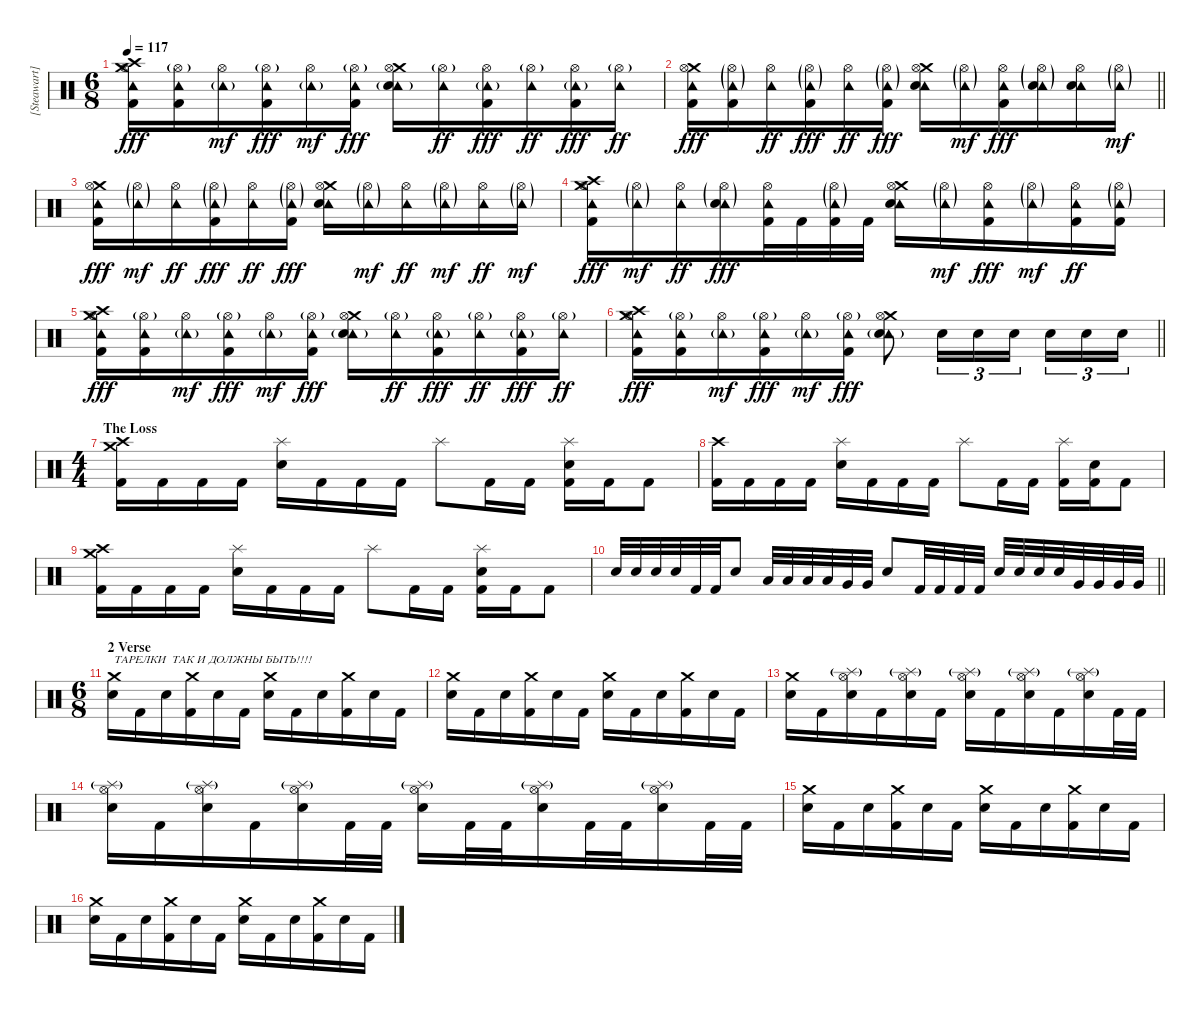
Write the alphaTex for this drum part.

\track ("[Steawart] Drums" "[Steawart]") {instrument percussion}
\staff {score}
\articulation defaults
\ts (6 8)
\tempo 117
\clef neutral
\ks c
("Crash medium (hit)" "Hi-Hat (open)" "Crash high (hit)" "Tambourine (hit)" "Kick (hit) 2").16{dy fff} ("Hi-Hat (open)"{g} "Tambourine (hit)" "Kick (hit) 2").16 ("Hi-Hat (open)" "Tambourine (hit)"{g}).16{dy mf} ("Hi-Hat (open)"{g} "Tambourine (hit)" "Kick (hit) 2").16{dy fff} ("Hi-Hat (open)" "Tambourine (hit)"{g}).16{dy mf} ("Hi-Hat (open)"{g} "Tambourine (hit)" "Kick (hit) 2").16{dy fff} ("Crash medium (hit)" "Hi-Hat (open)" "Tambourine (hit)"{g} "Electric Snare (hit)").16 ("Hi-Hat (open)"{g} "Tambourine (hit)").16{dy ff} ("Hi-Hat (open)" "Tambourine (hit)"{g} "Kick (hit) 2").16{dy fff} ("Hi-Hat (open)"{g} "Tambourine (hit)").16{dy ff} ("Hi-Hat (open)" "Tambourine (hit)"{g} "Kick (hit) 2").16{dy fff} ("Hi-Hat (open)"{g} "Tambourine (hit)").16{dy ff} |
\barLineRight lightlight
("Crash medium (hit)" "Hi-Hat (open)" "Tambourine (hit)" "Kick (hit) 2").16{dy fff} ("Hi-Hat (open)"{g} "Tambourine (hit)"{g} "Kick (hit) 2").16 ("Hi-Hat (open)" "Tambourine (hit)").16{dy ff} ("Hi-Hat (open)"{g} "Tambourine (hit)"{g} "Kick (hit) 2").16{dy fff} ("Hi-Hat (open)" "Tambourine (hit)").16{dy ff} ("Hi-Hat (open)"{g} "Tambourine (hit)"{g} "Kick (hit) 2").16{dy fff} ("Crash medium (hit)" "Hi-Hat (open)" "Tambourine (hit)" "Electric Snare (hit)").16 ("Hi-Hat (open)"{g} "Tambourine (hit)"{g}).16{dy mf} ("Hi-Hat (open)" "Tambourine (hit)" "Kick (hit) 2").16{dy fff} ("Hi-Hat (open)"{g} "Tambourine (hit)"{g} "Electric Snare (hit)").16 ("Hi-Hat (open)" "Tambourine (hit)" "Electric Snare (hit)").16 ("Hi-Hat (open)"{g} "Tambourine (hit)"{g}).16{dy mf} |
("Crash medium (hit)" "Hi-Hat (open)" "Tambourine (hit)" "Kick (hit) 2").16{dy fff} ("Hi-Hat (open)"{g} "Tambourine (hit)"{g}).16{dy mf} ("Hi-Hat (open)" "Tambourine (hit)").16{dy ff} ("Hi-Hat (open)"{g} "Tambourine (hit)"{g} "Kick (hit) 2").16{dy fff} ("Hi-Hat (open)" "Tambourine (hit)").16{dy ff} ("Hi-Hat (open)"{g} "Tambourine (hit)"{g} "Kick (hit) 2").16{dy fff} ("Crash medium (hit)" "Hi-Hat (open)" "Tambourine (hit)" "Electric Snare (hit)").16 ("Hi-Hat (open)"{g} "Tambourine (hit)"{g}).16{dy mf} ("Hi-Hat (open)" "Tambourine (hit)").16{dy ff} ("Hi-Hat (open)"{g} "Tambourine (hit)"{g}).16{dy mf} ("Hi-Hat (open)" "Tambourine (hit)").16{dy ff} ("Hi-Hat (open)"{g} "Tambourine (hit)"{g}).16{dy mf} |
("Crash medium (hit)" "Hi-Hat (open)" "Crash high (hit)" "Tambourine (hit)" "Kick (hit) 2").16{dy fff} ("Hi-Hat (open)"{g} "Tambourine (hit)"{g}).16{dy mf} ("Hi-Hat (open)" "Tambourine (hit)").16{dy ff} ("Hi-Hat (open)"{g} "Tambourine (hit)"{g} "Electric Snare (hit)").16{dy fff} ("Hi-Hat (open)" "Tambourine (hit)" "Kick (hit) 2").32 "Kick (hit) 2".32 ("Hi-Hat (open)"{g} "Tambourine (hit)"{g} "Kick (hit) 2").32 "Kick (hit) 2".32 ("Crash medium (hit)" "Hi-Hat (open)" "Tambourine (hit)" "Electric Snare (hit)").16 ("Hi-Hat (open)"{g} "Tambourine (hit)"{g}).16{dy mf} ("Hi-Hat (open)" "Tambourine (hit)" "Kick (hit) 2").16{dy fff} ("Hi-Hat (open)"{g} "Tambourine (hit)"{g}).16{dy mf} ("Hi-Hat (open)" "Tambourine (hit)" "Kick (hit) 2").16{dy ff} ("Hi-Hat (open)"{g} "Tambourine (hit)"{g} "Kick (hit) 2").16 |
("Crash medium (hit)" "Hi-Hat (open)" "Crash high (hit)" "Tambourine (hit)" "Kick (hit) 2").16{dy fff} ("Hi-Hat (open)"{g} "Tambourine (hit)" "Kick (hit) 2").16 ("Hi-Hat (open)" "Tambourine (hit)"{g}).16{dy mf} ("Hi-Hat (open)"{g} "Tambourine (hit)" "Kick (hit) 2").16{dy fff} ("Hi-Hat (open)" "Tambourine (hit)"{g}).16{dy mf} ("Hi-Hat (open)"{g} "Tambourine (hit)" "Kick (hit) 2").16{dy fff} ("Crash medium (hit)" "Hi-Hat (open)" "Tambourine (hit)"{g} "Electric Snare (hit)").16 ("Hi-Hat (open)"{g} "Tambourine (hit)").16{dy ff} ("Hi-Hat (open)" "Tambourine (hit)"{g} "Kick (hit) 2").16{dy fff} ("Hi-Hat (open)"{g} "Tambourine (hit)").16{dy ff} ("Hi-Hat (open)" "Tambourine (hit)"{g} "Kick (hit) 2").16{dy fff} ("Hi-Hat (open)"{g} "Tambourine (hit)").16{dy ff} |
\barLineRight lightlight
("Crash medium (hit)" "Hi-Hat (open)" "Crash high (hit)" "Tambourine (hit)" "Kick (hit) 2").16{dy fff} ("Hi-Hat (open)"{g} "Tambourine (hit)" "Kick (hit) 2").16 ("Hi-Hat (open)" "Tambourine (hit)"{g}).16{dy mf} ("Hi-Hat (open)"{g} "Tambourine (hit)" "Kick (hit) 2").16{dy fff} ("Hi-Hat (open)" "Tambourine (hit)"{g}).16{dy mf} ("Hi-Hat (open)"{g} "Tambourine (hit)" "Kick (hit) 2").16{dy fff} ("Crash medium (hit)" "Hi-Hat (open)" "Tambourine (hit)"{g} "Electric Snare (hit)").8 "Electric Snare (hit)".16{tu (3 2)} "Electric Snare (hit)".16{tu (3 2)} "Electric Snare (hit)".16{tu (3 2) beam splitsecondary} "Electric Snare (hit)".16{tu (3 2)} "Electric Snare (hit)".16{tu (3 2)} "Electric Snare (hit)".16{tu (3 2)} |
\ts (4 4)
\section ("" "The Loss")
("Crash medium (hit)" "Crash high (hit)" "Kick (hit) 2").16 "Kick (hit) 2".16 "Kick (hit) 2".16 "Kick (hit) 2".16 ("Splash (hit)" "Electric Snare (hit)").16 "Kick (hit) 2".16 "Kick (hit) 2".16 "Kick (hit) 2".16 "Splash (hit)".8 "Kick (hit) 2".16 "Kick (hit) 2".16 ("Splash (hit)" "Electric Snare (hit)" "Kick (hit) 2").16 "Kick (hit) 2".16 "Kick (hit) 2".8 |
("Crash high (hit)" "Kick (hit) 2").16 "Kick (hit) 2".16 "Kick (hit) 2".16 "Kick (hit) 2".16 ("Splash (hit)" "Electric Snare (hit)").16 "Kick (hit) 2".16 "Kick (hit) 2".16 "Kick (hit) 2".16 "Splash (hit)".8 "Kick (hit) 2".16 "Kick (hit) 2".16 ("Splash (hit)" "Kick (hit) 2").16 ("Electric Snare (hit)" "Kick (hit) 2").16 "Kick (hit) 2".8 |
("Crash medium (hit)" "Crash high (hit)" "Kick (hit) 2").16 "Kick (hit) 2".16 "Kick (hit) 2".16 "Kick (hit) 2".16 ("Splash (hit)" "Electric Snare (hit)").16 "Kick (hit) 2".16 "Kick (hit) 2".16 "Kick (hit) 2".16 "Splash (hit)".8 "Kick (hit) 2".16 "Kick (hit) 2".16 ("Splash (hit)" "Electric Snare (hit)" "Kick (hit) 2").16 "Kick (hit) 2".16 "Kick (hit) 2".8 |
\barLineRight lightlight "Electric Snare (hit)".32 "Electric Snare (hit)".32 "Electric Snare (hit)".32 "Electric Snare (hit)".32 "Kick (hit) 2".32 "Kick (hit) 2".32 "Electric Snare (hit)".8 "Low Tom (hit)".32 "Low Tom (hit)".32 "Low Tom (hit)".32 "Low Tom (hit)".32 "Very Low Tom (hit)".32 "Very Low Tom (hit)".32 "Electric Snare (hit)".8 "Kick (hit) 2".32 "Kick (hit) 2".32 "Kick (hit) 2".32 "Kick (hit) 2".32 "Electric Snare (hit)".32 "Electric Snare (hit)".32 "Electric Snare (hit)".32 "Electric Snare (hit)".32 "Very Low Tom (hit)".32 "Very Low Tom (hit)".32 "Very Low Tom (hit)".32 "Very Low Tom (hit)".32
|
\ts (6 8)
\section ("" "2 Verse ")
("Crash medium (hit)" "Electric Snare (hit)").16{txt "ТАРЕЛКИ  ТАК И ДОЛЖНЫ БЫТЬ!!!!"} "Kick (hit) 2".16 "Electric Snare (hit)".16 ("Crash medium (hit)" "Kick (hit) 2").16 "Electric Snare (hit)".16 "Kick (hit) 2".16 ("Crash medium (hit)" "Electric Snare (hit)").16 "Kick (hit) 2".16 "Electric Snare (hit)".16 ("Crash medium (hit)" "Kick (hit) 2").16 "Electric Snare (hit)".16 "Kick (hit) 2".16 |
("Crash medium (hit)" "Electric Snare (hit)").16 "Kick (hit) 2".16 "Electric Snare (hit)".16 ("Crash medium (hit)" "Kick (hit) 2").16 "Electric Snare (hit)".16 "Kick (hit) 2".16 ("Crash medium (hit)" "Electric Snare (hit)").16 "Kick (hit) 2".16 "Electric Snare (hit)".16 ("Crash medium (hit)" "Kick (hit) 2").16 "Electric Snare (hit)".16 "Kick (hit) 2".16 |
("Crash medium (hit)" "Electric Snare (hit)").16 "Kick (hit) 2".16 ("Hi-Hat (open)" "Splash (hit)"{g} "Electric Snare (hit)").16 "Kick (hit) 2".16 ("Hi-Hat (open)" "Splash (hit)"{g} "Electric Snare (hit)").16 "Kick (hit) 2".16 ("Hi-Hat (open)" "Splash (hit)"{g} "Electric Snare (hit)").16 "Kick (hit) 2".16 ("Hi-Hat (open)" "Splash (hit)"{g} "Electric Snare (hit)").16 "Kick (hit) 2".16 ("Hi-Hat (open)" "Splash (hit)"{g} "Electric Snare (hit)").16 "Kick (hit) 2".32 "Kick (hit) 2".32 |
("Hi-Hat (open)" "Splash (hit)"{g} "Electric Snare (hit)").16 "Kick (hit) 2".16 ("Hi-Hat (open)" "Splash (hit)"{g} "Electric Snare (hit)").16 "Kick (hit) 2".16 ("Hi-Hat (open)" "Splash (hit)"{g} "Electric Snare (hit)").16 "Kick (hit) 2".32 "Kick (hit) 2".32 ("Hi-Hat (open)" "Splash (hit)"{g} "Electric Snare (hit)").16 "Kick (hit) 2".32 "Kick (hit) 2".32 ("Hi-Hat (open)" "Splash (hit)"{g} "Electric Snare (hit)").16 "Kick (hit) 2".32 "Kick (hit) 2".32 ("Hi-Hat (open)" "Splash (hit)"{g} "Electric Snare (hit)").16 "Kick (hit) 2".32 "Kick (hit) 2".32 |
("Crash medium (hit)" "Electric Snare (hit)").16 "Kick (hit) 2".16 "Electric Snare (hit)".16 ("Crash medium (hit)" "Kick (hit) 2").16 "Electric Snare (hit)".16 "Kick (hit) 2".16 ("Crash medium (hit)" "Electric Snare (hit)").16 "Kick (hit) 2".16 "Electric Snare (hit)".16 ("Crash medium (hit)" "Kick (hit) 2").16 "Electric Snare (hit)".16 "Kick (hit) 2".16 |
("Crash medium (hit)" "Electric Snare (hit)").16 "Kick (hit) 2".16 "Electric Snare (hit)".16 ("Crash medium (hit)" "Kick (hit) 2").16 "Electric Snare (hit)".16 "Kick (hit) 2".16 ("Crash medium (hit)" "Electric Snare (hit)").16 "Kick (hit) 2".16 "Electric Snare (hit)".16 ("Crash medium (hit)" "Kick (hit) 2").16 "Electric Snare (hit)".16 "Kick (hit) 2".16
